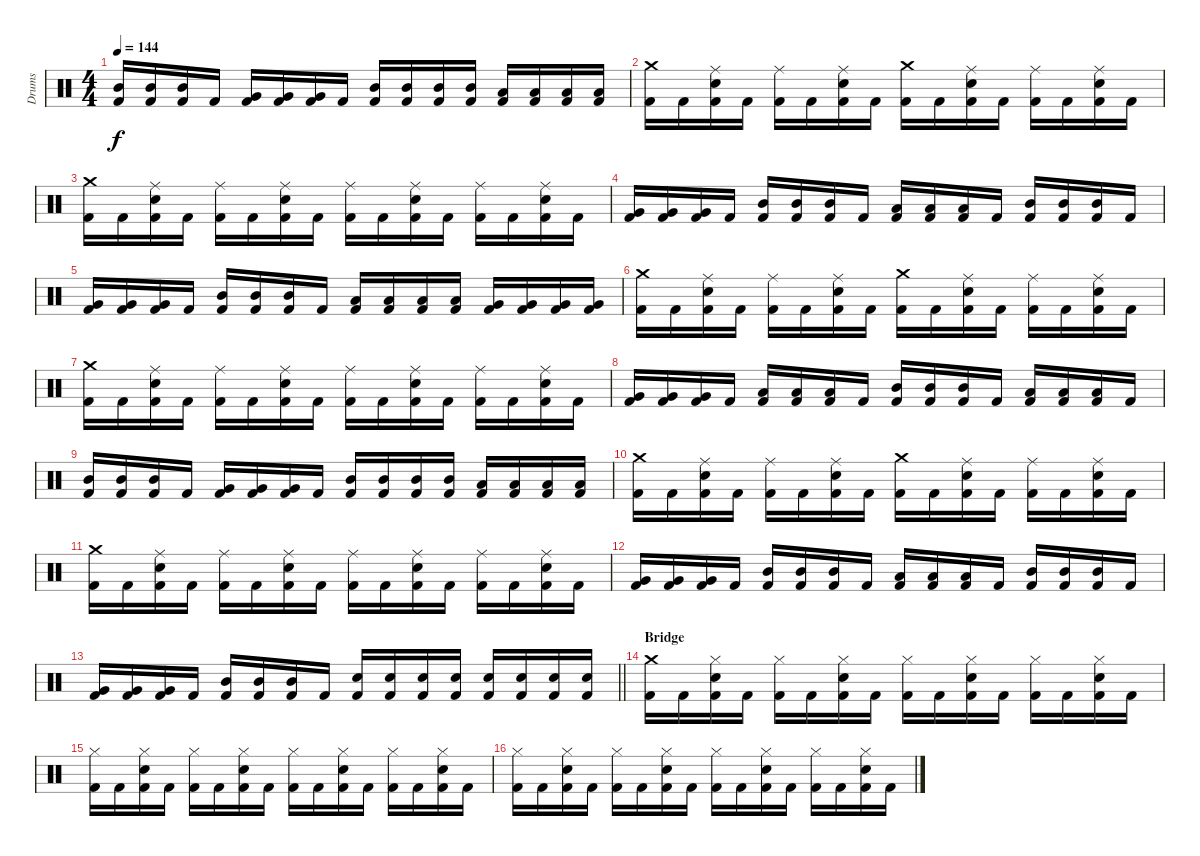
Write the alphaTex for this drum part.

\track ("Drums" "Drums") {instrument percussion}
\staff {score}
\articulation defaults
\ts (4 4)
\tempo 144
\clef neutral
\ks c
("Kick (hit) 2" "Mid Tom (hit)").16{dy f} ("Kick (hit) 2" "Mid Tom (hit)").16 ("Kick (hit) 2" "Mid Tom (hit)").16 "Kick (hit) 2".16 ("Kick (hit) 2" "Very Low Tom (hit)").16 ("Kick (hit) 2" "Very Low Tom (hit)").16 ("Kick (hit) 2" "Very Low Tom (hit)").16 "Kick (hit) 2".16 ("Kick (hit) 2" "Mid Tom (hit)").16 ("Kick (hit) 2" "Mid Tom (hit)").16 ("Kick (hit) 2" "Mid Tom (hit)").16 ("Kick (hit) 2" "Mid Tom (hit)").16 ("Kick (hit) 2" "Low Tom (hit)").16 ("Kick (hit) 2" "Low Tom (hit)").16 ("Kick (hit) 2" "Low Tom (hit)").16 ("Kick (hit) 2" "Low Tom (hit)").16 |
("Kick (hit) 2" "Crash medium (hit)").16 "Kick (hit) 2".16 ("Kick (hit) 2" "Snare (hit) 2" "Ride (middle)").16 "Kick (hit) 2".16 ("Kick (hit) 2" "Ride (middle)").16 "Kick (hit) 2".16 ("Kick (hit) 2" "Snare (hit) 2" "Ride (middle)").16 "Kick (hit) 2".16 ("Kick (hit) 2" "Crash medium (hit)").16 "Kick (hit) 2".16 ("Kick (hit) 2" "Snare (hit) 2" "Ride (middle)").16 "Kick (hit) 2".16 ("Kick (hit) 2" "Ride (middle)").16 "Kick (hit) 2".16 ("Kick (hit) 2" "Snare (hit) 2" "Ride (middle)").16 "Kick (hit) 2".16 |
("Kick (hit) 2" "Crash medium (hit)").16 "Kick (hit) 2".16 ("Kick (hit) 2" "Snare (hit) 2" "Ride (middle)").16 "Kick (hit) 2".16 ("Kick (hit) 2" "Ride (middle)").16 "Kick (hit) 2".16 ("Kick (hit) 2" "Snare (hit) 2" "Ride (middle)").16 "Kick (hit) 2".16 ("Kick (hit) 2" "Ride (middle)").16 "Kick (hit) 2".16 ("Kick (hit) 2" "Snare (hit) 2" "Ride (middle)").16 "Kick (hit) 2".16 ("Kick (hit) 2" "Ride (middle)").16 "Kick (hit) 2".16 ("Kick (hit) 2" "Snare (hit) 2" "Ride (middle)").16 "Kick (hit) 2".16 |
("Kick (hit) 2" "Very Low Tom (hit)").16 ("Kick (hit) 2" "Very Low Tom (hit)").16 ("Kick (hit) 2" "Very Low Tom (hit)").16 "Kick (hit) 2".16 ("Kick (hit) 2" "Mid Tom (hit)").16 ("Kick (hit) 2" "Mid Tom (hit)").16 ("Kick (hit) 2" "Mid Tom (hit)").16 "Kick (hit) 2".16 ("Kick (hit) 2" "Low Tom (hit)").16 ("Kick (hit) 2" "Low Tom (hit)").16 ("Kick (hit) 2" "Low Tom (hit)").16 "Kick (hit) 2".16 ("Kick (hit) 2" "Mid Tom (hit)").16 ("Kick (hit) 2" "Mid Tom (hit)").16 ("Kick (hit) 2" "Mid Tom (hit)").16 "Kick (hit) 2".16 |
("Kick (hit) 2" "Very Low Tom (hit)").16 ("Kick (hit) 2" "Very Low Tom (hit)").16 ("Kick (hit) 2" "Very Low Tom (hit)").16 "Kick (hit) 2".16 ("Kick (hit) 2" "Mid Tom (hit)").16 ("Kick (hit) 2" "Mid Tom (hit)").16 ("Kick (hit) 2" "Mid Tom (hit)").16 "Kick (hit) 2".16 ("Kick (hit) 2" "Low Tom (hit)").16 ("Kick (hit) 2" "Low Tom (hit)").16 ("Kick (hit) 2" "Low Tom (hit)").16 ("Kick (hit) 2" "Low Tom (hit)").16 ("Kick (hit) 2" "Very Low Tom (hit)").16 ("Kick (hit) 2" "Very Low Tom (hit)").16 ("Kick (hit) 2" "Very Low Tom (hit)").16 ("Kick (hit) 2" "Very Low Tom (hit)").16 |
("Kick (hit) 2" "Crash medium (hit)").16 "Kick (hit) 2".16 ("Kick (hit) 2" "Snare (hit) 2" "Ride (middle)").16 "Kick (hit) 2".16 ("Kick (hit) 2" "Ride (middle)").16 "Kick (hit) 2".16 ("Kick (hit) 2" "Snare (hit) 2" "Ride (middle)").16 "Kick (hit) 2".16 ("Kick (hit) 2" "Crash medium (hit)").16 "Kick (hit) 2".16 ("Kick (hit) 2" "Snare (hit) 2" "Ride (middle)").16 "Kick (hit) 2".16 ("Kick (hit) 2" "Ride (middle)").16 "Kick (hit) 2".16 ("Kick (hit) 2" "Snare (hit) 2" "Ride (middle)").16 "Kick (hit) 2".16 |
("Kick (hit) 2" "Crash medium (hit)").16 "Kick (hit) 2".16 ("Kick (hit) 2" "Snare (hit) 2" "Ride (middle)").16 "Kick (hit) 2".16 ("Kick (hit) 2" "Ride (middle)").16 "Kick (hit) 2".16 ("Kick (hit) 2" "Snare (hit) 2" "Ride (middle)").16 "Kick (hit) 2".16 ("Kick (hit) 2" "Ride (middle)").16 "Kick (hit) 2".16 ("Kick (hit) 2" "Snare (hit) 2" "Ride (middle)").16 "Kick (hit) 2".16 ("Kick (hit) 2" "Ride (middle)").16 "Kick (hit) 2".16 ("Kick (hit) 2" "Snare (hit) 2" "Ride (middle)").16 "Kick (hit) 2".16 |
("Kick (hit) 2" "Very Low Tom (hit)").16 ("Kick (hit) 2" "Very Low Tom (hit)").16 ("Kick (hit) 2" "Very Low Tom (hit)").16 "Kick (hit) 2".16 ("Kick (hit) 2" "Low Tom (hit)").16 ("Kick (hit) 2" "Low Tom (hit)").16 ("Kick (hit) 2" "Low Tom (hit)").16 "Kick (hit) 2".16 ("Kick (hit) 2" "Mid Tom (hit)").16 ("Kick (hit) 2" "Mid Tom (hit)").16 ("Kick (hit) 2" "Mid Tom (hit)").16 "Kick (hit) 2".16 ("Kick (hit) 2" "Low Tom (hit)").16 ("Kick (hit) 2" "Low Tom (hit)").16 ("Kick (hit) 2" "Low Tom (hit)").16 "Kick (hit) 2".16 |
("Kick (hit) 2" "Mid Tom (hit)").16 ("Kick (hit) 2" "Mid Tom (hit)").16 ("Kick (hit) 2" "Mid Tom (hit)").16 "Kick (hit) 2".16 ("Kick (hit) 2" "Very Low Tom (hit)").16 ("Kick (hit) 2" "Very Low Tom (hit)").16 ("Kick (hit) 2" "Very Low Tom (hit)").16 "Kick (hit) 2".16 ("Kick (hit) 2" "Mid Tom (hit)").16 ("Kick (hit) 2" "Mid Tom (hit)").16 ("Kick (hit) 2" "Mid Tom (hit)").16 ("Kick (hit) 2" "Mid Tom (hit)").16 ("Kick (hit) 2" "Low Tom (hit)").16 ("Kick (hit) 2" "Low Tom (hit)").16 ("Kick (hit) 2" "Low Tom (hit)").16 ("Kick (hit) 2" "Low Tom (hit)").16 |
("Kick (hit) 2" "Crash medium (hit)").16 "Kick (hit) 2".16 ("Kick (hit) 2" "Snare (hit) 2" "Ride (middle)").16 "Kick (hit) 2".16 ("Kick (hit) 2" "Ride (middle)").16 "Kick (hit) 2".16 ("Kick (hit) 2" "Snare (hit) 2" "Ride (middle)").16 "Kick (hit) 2".16 ("Kick (hit) 2" "Crash medium (hit)").16 "Kick (hit) 2".16 ("Kick (hit) 2" "Snare (hit) 2" "Ride (middle)").16 "Kick (hit) 2".16 ("Kick (hit) 2" "Ride (middle)").16 "Kick (hit) 2".16 ("Kick (hit) 2" "Snare (hit) 2" "Ride (middle)").16 "Kick (hit) 2".16 |
("Kick (hit) 2" "Crash medium (hit)").16 "Kick (hit) 2".16 ("Kick (hit) 2" "Snare (hit) 2" "Ride (middle)").16 "Kick (hit) 2".16 ("Kick (hit) 2" "Ride (middle)").16 "Kick (hit) 2".16 ("Kick (hit) 2" "Snare (hit) 2" "Ride (middle)").16 "Kick (hit) 2".16 ("Kick (hit) 2" "Ride (middle)").16 "Kick (hit) 2".16 ("Kick (hit) 2" "Snare (hit) 2" "Ride (middle)").16 "Kick (hit) 2".16 ("Kick (hit) 2" "Ride (middle)").16 "Kick (hit) 2".16 ("Kick (hit) 2" "Snare (hit) 2" "Ride (middle)").16 "Kick (hit) 2".16 |
("Kick (hit) 2" "Very Low Tom (hit)").16 ("Kick (hit) 2" "Very Low Tom (hit)").16 ("Kick (hit) 2" "Very Low Tom (hit)").16 "Kick (hit) 2".16 ("Kick (hit) 2" "Mid Tom (hit)").16 ("Kick (hit) 2" "Mid Tom (hit)").16 ("Kick (hit) 2" "Mid Tom (hit)").16 "Kick (hit) 2".16 ("Kick (hit) 2" "Low Tom (hit)").16 ("Kick (hit) 2" "Low Tom (hit)").16 ("Kick (hit) 2" "Low Tom (hit)").16 "Kick (hit) 2".16 ("Kick (hit) 2" "Mid Tom (hit)").16 ("Kick (hit) 2" "Mid Tom (hit)").16 ("Kick (hit) 2" "Mid Tom (hit)").16 "Kick (hit) 2".16 |
\barLineRight lightlight
("Kick (hit) 2" "Very Low Tom (hit)").16 ("Kick (hit) 2" "Very Low Tom (hit)").16 ("Kick (hit) 2" "Very Low Tom (hit)").16 "Kick (hit) 2".16 ("Kick (hit) 2" "Mid Tom (hit)").16 ("Kick (hit) 2" "Mid Tom (hit)").16 ("Kick (hit) 2" "Mid Tom (hit)").16 "Kick (hit) 2".16 ("Kick (hit) 2" "Snare (hit) 2").16 ("Kick (hit) 2" "Snare (hit) 2").16 ("Kick (hit) 2" "Snare (hit) 2").16 ("Kick (hit) 2" "Snare (hit) 2").16 ("Kick (hit) 2" "Snare (hit) 2").16 ("Kick (hit) 2" "Snare (hit) 2").16 ("Kick (hit) 2" "Snare (hit) 2").16 ("Kick (hit) 2" "Snare (hit) 2").16 |
\section ("" "Bridge")
("Kick (hit) 2" "Crash medium (hit)").16 "Kick (hit) 2".16 ("Kick (hit) 2" "Snare (hit) 2" "Hi-Hat (closed)").16 "Kick (hit) 2".16 ("Kick (hit) 2" "Hi-Hat (closed)").16 "Kick (hit) 2".16 ("Kick (hit) 2" "Snare (hit) 2" "Hi-Hat (closed)").16 "Kick (hit) 2".16 ("Kick (hit) 2" "Hi-Hat (closed)").16 "Kick (hit) 2".16 ("Kick (hit) 2" "Snare (hit) 2" "Hi-Hat (closed)").16 "Kick (hit) 2".16 ("Kick (hit) 2" "Hi-Hat (closed)").16 "Kick (hit) 2".16 ("Kick (hit) 2" "Snare (hit) 2" "Hi-Hat (closed)").16 "Kick (hit) 2".16 |
("Kick (hit) 2" "Hi-Hat (closed)").16 "Kick (hit) 2".16 ("Kick (hit) 2" "Snare (hit) 2" "Hi-Hat (closed)").16 "Kick (hit) 2".16 ("Kick (hit) 2" "Hi-Hat (closed)").16 "Kick (hit) 2".16 ("Kick (hit) 2" "Snare (hit) 2" "Hi-Hat (closed)").16 "Kick (hit) 2".16 ("Kick (hit) 2" "Hi-Hat (closed)").16 "Kick (hit) 2".16 ("Kick (hit) 2" "Snare (hit) 2" "Hi-Hat (closed)").16 "Kick (hit) 2".16 ("Kick (hit) 2" "Hi-Hat (closed)").16 "Kick (hit) 2".16 ("Kick (hit) 2" "Snare (hit) 2" "Hi-Hat (closed)").16 "Kick (hit) 2".16 |
("Kick (hit) 2" "Hi-Hat (closed)").16 "Kick (hit) 2".16 ("Kick (hit) 2" "Snare (hit) 2" "Hi-Hat (closed)").16 "Kick (hit) 2".16 ("Kick (hit) 2" "Hi-Hat (closed)").16 "Kick (hit) 2".16 ("Kick (hit) 2" "Snare (hit) 2" "Hi-Hat (closed)").16 "Kick (hit) 2".16 ("Kick (hit) 2" "Hi-Hat (closed)").16 "Kick (hit) 2".16 ("Kick (hit) 2" "Snare (hit) 2" "Hi-Hat (closed)").16 "Kick (hit) 2".16 ("Kick (hit) 2" "Hi-Hat (closed)").16 "Kick (hit) 2".16 ("Kick (hit) 2" "Snare (hit) 2" "Hi-Hat (closed)").16 "Kick (hit) 2".16
